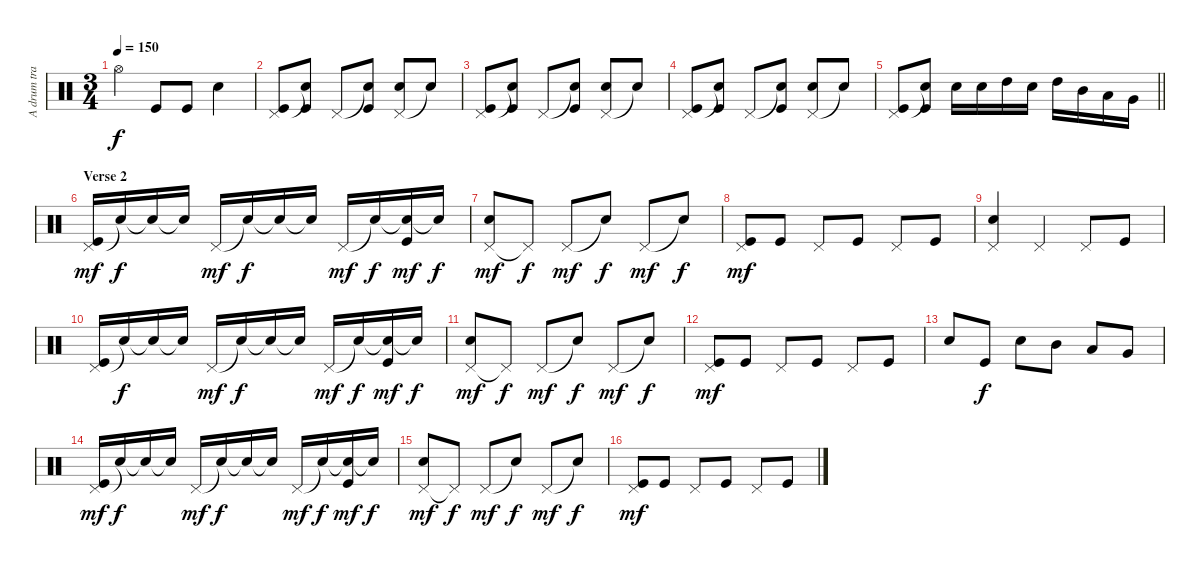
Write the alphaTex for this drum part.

\track ("A drum track I added for fun" "A drum tra") {instrument percussion}
\staff {score}
\articulation defaults
\ts (3 4)
\tempo 150
\clef neutral
\ks c "Hi-Hat (open)".4{dy f} "Kick (hit)".8 "Kick (hit)".8 "Electric Snare (hit)".4
|
("Pedal Hi-Hat (hit)" "Kick (hit)").8 ("Snare (hit)"{t} "Kick (hit)").8 "Pedal Hi-Hat (hit)".8 ("Snare (hit)"{t} "Kick (hit)").8 ("Pedal Hi-Hat (hit)" "Electric Snare (hit)").8 "Snare (hit)"{t}.8 |
("Pedal Hi-Hat (hit)" "Kick (hit)").8 ("Snare (hit)"{t} "Kick (hit)").8 "Pedal Hi-Hat (hit)".8 ("Snare (hit)"{t} "Kick (hit)").8 ("Pedal Hi-Hat (hit)" "Electric Snare (hit)").8 "Snare (hit)"{t}.8 |
("Pedal Hi-Hat (hit)" "Kick (hit)").8 ("Snare (hit)"{t} "Kick (hit)").8 "Pedal Hi-Hat (hit)".8 ("Snare (hit)"{t} "Kick (hit)").8 ("Pedal Hi-Hat (hit)" "Electric Snare (hit)").8 "Snare (hit)"{t}.8 |
\barLineRight lightlight
("Pedal Hi-Hat (hit)" "Kick (hit)").8 ("Snare (hit)"{t} "Kick (hit)").8 "Electric Snare (hit)".16 "Electric Snare (hit)".16 "High Tom (hit)".16 "Electric Snare (hit)".16 "High Tom (hit)".16 "Mid Tom (hit)".16 "Low Tom (hit)".16 "Very Low Tom (hit)".16 |
\section ("" "Verse 2")
("Pedal Hi-Hat (hit)" "Kick (hit)").16{dy mf} "Snare (hit)"{t}.16{dy f} "Snare (hit)"{t}.16 "Snare (hit)"{t}.16 "Pedal Hi-Hat (hit)".16{dy mf} "Snare (hit)"{t}.16{dy f} "Snare (hit)"{t}.16 "Snare (hit)"{t}.16 "Pedal Hi-Hat (hit)".16{dy mf} "Snare (hit)"{t}.16{dy f} ("Snare (hit)"{t} "Kick (hit)").16{dy mf} "Snare (hit)"{t}.16{dy f} |
("Pedal Hi-Hat (hit)" "Electric Snare (hit)").8{dy mf} "Pedal Hi-Hat (hit)"{t}.8{dy f} "Pedal Hi-Hat (hit)".8{dy mf} "Snare (hit)"{t}.8{dy f} "Pedal Hi-Hat (hit)".8{dy mf} "Snare (hit)"{t}.8{dy f} |
("Pedal Hi-Hat (hit)" "Kick (hit)").8{dy mf} "Kick (hit)".8 "Pedal Hi-Hat (hit)".8 "Kick (hit)".8 "Pedal Hi-Hat (hit)".8 "Kick (hit)".8 |
("Pedal Hi-Hat (hit)" "Electric Snare (hit)").4 "Pedal Hi-Hat (hit)".4 "Pedal Hi-Hat (hit)".8 "Kick (hit)".8 |
("Pedal Hi-Hat (hit)" "Kick (hit)").16 "Snare (hit)"{t}.16{dy f} "Snare (hit)"{t}.16 "Snare (hit)"{t}.16 "Pedal Hi-Hat (hit)".16{dy mf} "Snare (hit)"{t}.16{dy f} "Snare (hit)"{t}.16 "Snare (hit)"{t}.16 "Pedal Hi-Hat (hit)".16{dy mf} "Snare (hit)"{t}.16{dy f} ("Snare (hit)"{t} "Kick (hit)").16{dy mf} "Snare (hit)"{t}.16{dy f} |
("Pedal Hi-Hat (hit)" "Electric Snare (hit)").8{dy mf} "Pedal Hi-Hat (hit)"{t}.8{dy f} "Pedal Hi-Hat (hit)".8{dy mf} "Snare (hit)"{t}.8{dy f} "Pedal Hi-Hat (hit)".8{dy mf} "Snare (hit)"{t}.8{dy f} |
("Pedal Hi-Hat (hit)" "Kick (hit)").8{dy mf} "Kick (hit)".8 "Pedal Hi-Hat (hit)".8 "Kick (hit)".8 "Pedal Hi-Hat (hit)".8 "Kick (hit)".8 |
"Electric Snare (hit)".8 "Kick (hit)".8{dy f} "Electric Snare (hit)".8 "Mid Tom (hit)".8 "Low Tom (hit)".8 "Very Low Tom (hit)".8 |
("Pedal Hi-Hat (hit)" "Kick (hit)").16{dy mf} "Snare (hit)"{t}.16{dy f} "Snare (hit)"{t}.16 "Snare (hit)"{t}.16 "Pedal Hi-Hat (hit)".16{dy mf} "Snare (hit)"{t}.16{dy f} "Snare (hit)"{t}.16 "Snare (hit)"{t}.16 "Pedal Hi-Hat (hit)".16{dy mf} "Snare (hit)"{t}.16{dy f} ("Snare (hit)"{t} "Kick (hit)").16{dy mf} "Snare (hit)"{t}.16{dy f} |
("Pedal Hi-Hat (hit)" "Electric Snare (hit)").8{dy mf} "Pedal Hi-Hat (hit)"{t}.8{dy f} "Pedal Hi-Hat (hit)".8{dy mf} "Snare (hit)"{t}.8{dy f} "Pedal Hi-Hat (hit)".8{dy mf} "Snare (hit)"{t}.8{dy f} |
("Pedal Hi-Hat (hit)" "Kick (hit)").8{dy mf} "Kick (hit)".8 "Pedal Hi-Hat (hit)".8 "Kick (hit)".8 "Pedal Hi-Hat (hit)".8 "Kick (hit)".8
